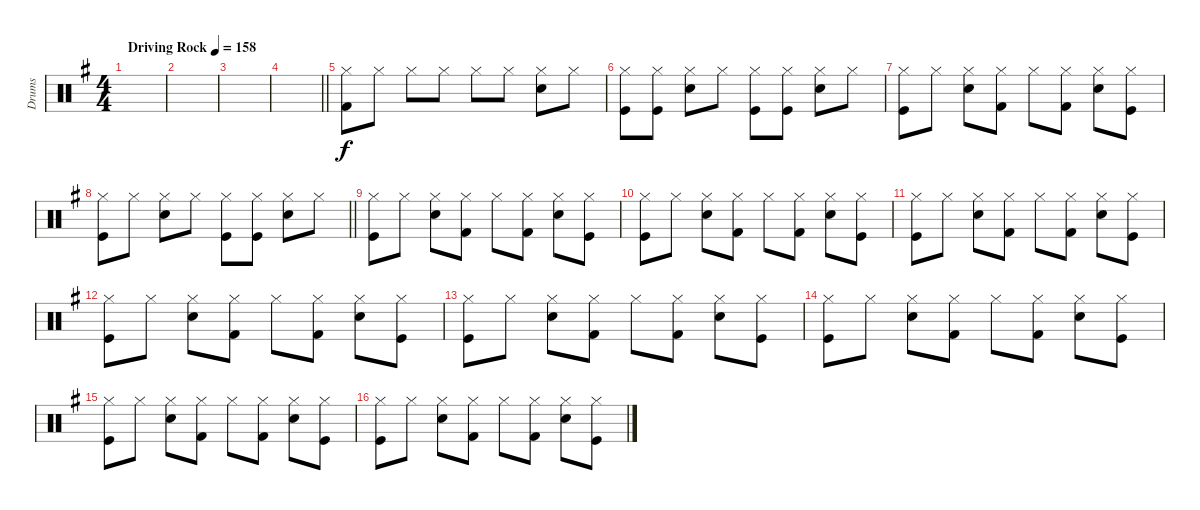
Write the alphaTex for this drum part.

\track ("Drums" "Drums") {instrument percussion}
\staff {score}
\articulation defaults
\ts (4 4)
\tempo (158 "Driving Rock")
\clef neutral
\ks g
|
|
|
\barLineRight lightlight
|
("Hi-Hat (closed)" "Kick (hit) 2").8 "Hi-Hat (closed)".8 "Hi-Hat (closed)".8 "Hi-Hat (closed)".8 "Hi-Hat (closed)".8 "Hi-Hat (closed)".8 ("Hi-Hat (closed)" "Snare (hit) 2").8 "Hi-Hat (closed)".8 |
("Hi-Hat (closed)" "Kick (hit)").8 ("Hi-Hat (closed)" "Kick (hit)").8 ("Hi-Hat (closed)" "Snare (hit) 2").8 "Hi-Hat (closed)".8 ("Hi-Hat (closed)" "Kick (hit)").8 ("Hi-Hat (closed)" "Kick (hit)").8 ("Hi-Hat (closed)" "Snare (hit) 2").8 "Hi-Hat (closed)".8 |
("Hi-Hat (closed)" "Kick (hit)").8 "Hi-Hat (closed)".8 ("Hi-Hat (closed)" "Snare (hit) 2").8 ("Hi-Hat (closed)" "Kick (hit) 2").8 "Hi-Hat (closed)".8 ("Hi-Hat (closed)" "Kick (hit) 2").8 ("Hi-Hat (closed)" "Snare (hit) 2").8 ("Hi-Hat (closed)" "Kick (hit)").8 |
\barLineRight lightlight
("Hi-Hat (closed)" "Kick (hit)").8 "Hi-Hat (closed)".8 ("Hi-Hat (closed)" "Snare (hit) 2").8 "Hi-Hat (closed)".8 ("Hi-Hat (closed)" "Kick (hit)").8 ("Hi-Hat (closed)" "Kick (hit)").8 ("Hi-Hat (closed)" "Snare (hit) 2").8 "Hi-Hat (closed)".8 |
("Hi-Hat (closed)" "Kick (hit)").8 "Hi-Hat (closed)".8 ("Hi-Hat (closed)" "Snare (hit) 2").8 ("Hi-Hat (closed)" "Kick (hit) 2").8 "Hi-Hat (closed)".8 ("Hi-Hat (closed)" "Kick (hit) 2").8 ("Hi-Hat (closed)" "Snare (hit) 2").8 ("Hi-Hat (closed)" "Kick (hit)").8 |
("Hi-Hat (closed)" "Kick (hit)").8 "Hi-Hat (closed)".8 ("Hi-Hat (closed)" "Snare (hit) 2").8 ("Hi-Hat (closed)" "Kick (hit) 2").8 "Hi-Hat (closed)".8 ("Hi-Hat (closed)" "Kick (hit) 2").8 ("Hi-Hat (closed)" "Snare (hit) 2").8 ("Hi-Hat (closed)" "Kick (hit)").8 |
("Hi-Hat (closed)" "Kick (hit)").8 "Hi-Hat (closed)".8 ("Hi-Hat (closed)" "Snare (hit) 2").8 ("Hi-Hat (closed)" "Kick (hit) 2").8 "Hi-Hat (closed)".8 ("Hi-Hat (closed)" "Kick (hit) 2").8 ("Hi-Hat (closed)" "Snare (hit) 2").8 ("Hi-Hat (closed)" "Kick (hit)").8 |
("Hi-Hat (closed)" "Kick (hit)").8 "Hi-Hat (closed)".8 ("Hi-Hat (closed)" "Snare (hit) 2").8 ("Hi-Hat (closed)" "Kick (hit) 2").8 "Hi-Hat (closed)".8 ("Hi-Hat (closed)" "Kick (hit) 2").8 ("Hi-Hat (closed)" "Snare (hit) 2").8 ("Hi-Hat (closed)" "Kick (hit)").8 |
("Hi-Hat (closed)" "Kick (hit)").8 "Hi-Hat (closed)".8 ("Hi-Hat (closed)" "Snare (hit) 2").8 ("Hi-Hat (closed)" "Kick (hit) 2").8 "Hi-Hat (closed)".8 ("Hi-Hat (closed)" "Kick (hit) 2").8 ("Hi-Hat (closed)" "Snare (hit) 2").8 ("Hi-Hat (closed)" "Kick (hit)").8 |
("Hi-Hat (closed)" "Kick (hit)").8 "Hi-Hat (closed)".8 ("Hi-Hat (closed)" "Snare (hit) 2").8 ("Hi-Hat (closed)" "Kick (hit) 2").8 "Hi-Hat (closed)".8 ("Hi-Hat (closed)" "Kick (hit) 2").8 ("Hi-Hat (closed)" "Snare (hit) 2").8 ("Hi-Hat (closed)" "Kick (hit)").8 |
("Hi-Hat (closed)" "Kick (hit)").8 "Hi-Hat (closed)".8 ("Hi-Hat (closed)" "Snare (hit) 2").8 ("Hi-Hat (closed)" "Kick (hit) 2").8 "Hi-Hat (closed)".8 ("Hi-Hat (closed)" "Kick (hit) 2").8 ("Hi-Hat (closed)" "Snare (hit) 2").8 ("Hi-Hat (closed)" "Kick (hit)").8 |
("Hi-Hat (closed)" "Kick (hit)").8 "Hi-Hat (closed)".8 ("Hi-Hat (closed)" "Snare (hit) 2").8 ("Hi-Hat (closed)" "Kick (hit) 2").8 "Hi-Hat (closed)".8 ("Hi-Hat (closed)" "Kick (hit) 2").8 ("Hi-Hat (closed)" "Snare (hit) 2").8 ("Hi-Hat (closed)" "Kick (hit)").8
